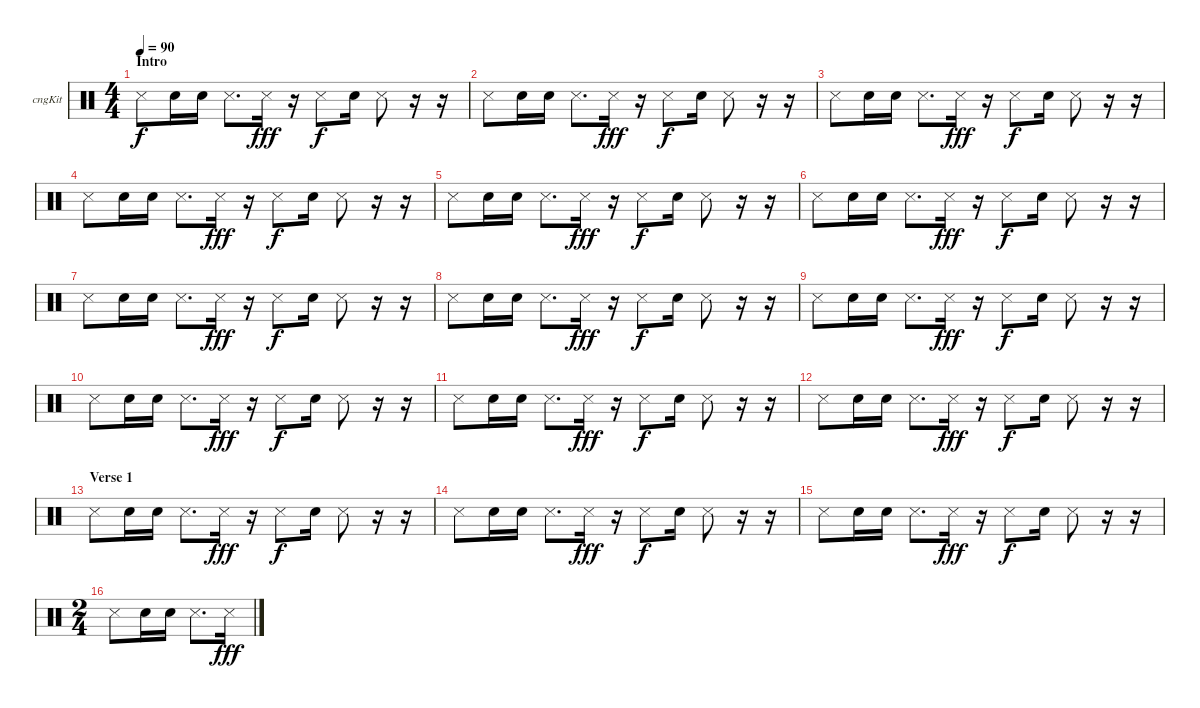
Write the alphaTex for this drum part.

\bracketExtendMode groupsimilarinstruments
\firstSystemTrackNameOrientation horizontal
\otherSystemsTrackNameOrientation horizontal
\track ("Congas" "cngKit") {multiBarRest instrument percussion}
\staff {score}
\articulation defaults
\ts (4 4)
\beaming (8 2 2 2 2)
\section ("" "Intro")
\tempo 90
\clef neutral
\ks c "Snare (side stick) 3".8{dy f} "Snare (hit) 2".16 "Snare (hit) 2".16 "Snare (side stick) 3".8{d} "Snare (side stick) 3".16{dy fff}
r.16 "Snare (side stick) 3".8{dy f} "Snare (hit) 2".16 "Snare (side stick) 3".8 r.16 r.16 |
"Snare (side stick) 3".8 "Snare (hit) 2".16 "Snare (hit) 2".16 "Snare (side stick) 3".8{d} "Snare (side stick) 3".16{dy fff} r.16 "Snare (side stick) 3".8{dy f} "Snare (hit) 2".16 "Snare (side stick) 3".8 r.16 r.16 |
"Snare (side stick) 3".8 "Snare (hit) 2".16 "Snare (hit) 2".16 "Snare (side stick) 3".8{d} "Snare (side stick) 3".16{dy fff} r.16 "Snare (side stick) 3".8{dy f} "Snare (hit) 2".16 "Snare (side stick) 3".8 r.16 r.16 |
"Snare (side stick) 3".8 "Snare (hit) 2".16 "Snare (hit) 2".16 "Snare (side stick) 3".8{d} "Snare (side stick) 3".16{dy fff} r.16 "Snare (side stick) 3".8{dy f} "Snare (hit) 2".16 "Snare (side stick) 3".8 r.16 r.16 |
"Snare (side stick) 3".8 "Snare (hit) 2".16 "Snare (hit) 2".16 "Snare (side stick) 3".8{d} "Snare (side stick) 3".16{dy fff} r.16 "Snare (side stick) 3".8{dy f} "Snare (hit) 2".16 "Snare (side stick) 3".8 r.16 r.16 |
"Snare (side stick) 3".8 "Snare (hit) 2".16 "Snare (hit) 2".16 "Snare (side stick) 3".8{d} "Snare (side stick) 3".16{dy fff} r.16 "Snare (side stick) 3".8{dy f} "Snare (hit) 2".16 "Snare (side stick) 3".8 r.16 r.16 |
"Snare (side stick) 3".8 "Snare (hit) 2".16 "Snare (hit) 2".16 "Snare (side stick) 3".8{d} "Snare (side stick) 3".16{dy fff} r.16 "Snare (side stick) 3".8{dy f} "Snare (hit) 2".16 "Snare (side stick) 3".8 r.16 r.16 |
"Snare (side stick) 3".8 "Snare (hit) 2".16 "Snare (hit) 2".16 "Snare (side stick) 3".8{d} "Snare (side stick) 3".16{dy fff} r.16 "Snare (side stick) 3".8{dy f} "Snare (hit) 2".16 "Snare (side stick) 3".8 r.16 r.16 |
"Snare (side stick) 3".8 "Snare (hit) 2".16 "Snare (hit) 2".16 "Snare (side stick) 3".8{d} "Snare (side stick) 3".16{dy fff} r.16 "Snare (side stick) 3".8{dy f} "Snare (hit) 2".16 "Snare (side stick) 3".8 r.16 r.16 |
"Snare (side stick) 3".8 "Snare (hit) 2".16 "Snare (hit) 2".16 "Snare (side stick) 3".8{d} "Snare (side stick) 3".16{dy fff} r.16 "Snare (side stick) 3".8{dy f} "Snare (hit) 2".16 "Snare (side stick) 3".8 r.16 r.16 |
"Snare (side stick) 3".8 "Snare (hit) 2".16 "Snare (hit) 2".16 "Snare (side stick) 3".8{d} "Snare (side stick) 3".16{dy fff} r.16 "Snare (side stick) 3".8{dy f} "Snare (hit) 2".16 "Snare (side stick) 3".8 r.16 r.16 |
"Snare (side stick) 3".8 "Snare (hit) 2".16 "Snare (hit) 2".16 "Snare (side stick) 3".8{d} "Snare (side stick) 3".16{dy fff} r.16 "Snare (side stick) 3".8{dy f} "Snare (hit) 2".16 "Snare (side stick) 3".8 r.16 r.16 |
\section ("" "Verse 1")
"Snare (side stick) 3".8 "Snare (hit) 2".16 "Snare (hit) 2".16 "Snare (side stick) 3".8{d} "Snare (side stick) 3".16{dy fff} r.16 "Snare (side stick) 3".8{dy f} "Snare (hit) 2".16 "Snare (side stick) 3".8 r.16 r.16 |
"Snare (side stick) 3".8 "Snare (hit) 2".16 "Snare (hit) 2".16 "Snare (side stick) 3".8{d} "Snare (side stick) 3".16{dy fff} r.16 "Snare (side stick) 3".8{dy f} "Snare (hit) 2".16 "Snare (side stick) 3".8 r.16 r.16 |
"Snare (side stick) 3".8 "Snare (hit) 2".16 "Snare (hit) 2".16 "Snare (side stick) 3".8{d} "Snare (side stick) 3".16{dy fff} r.16 "Snare (side stick) 3".8{dy f} "Snare (hit) 2".16 "Snare (side stick) 3".8 r.16 r.16 |
\ts (2 4)
\beaming (8 2 2)
"Snare (side stick) 3".8 "Snare (hit) 2".16 "Snare (hit) 2".16 "Snare (side stick) 3".8{d} "Snare (side stick) 3".16{dy fff}
